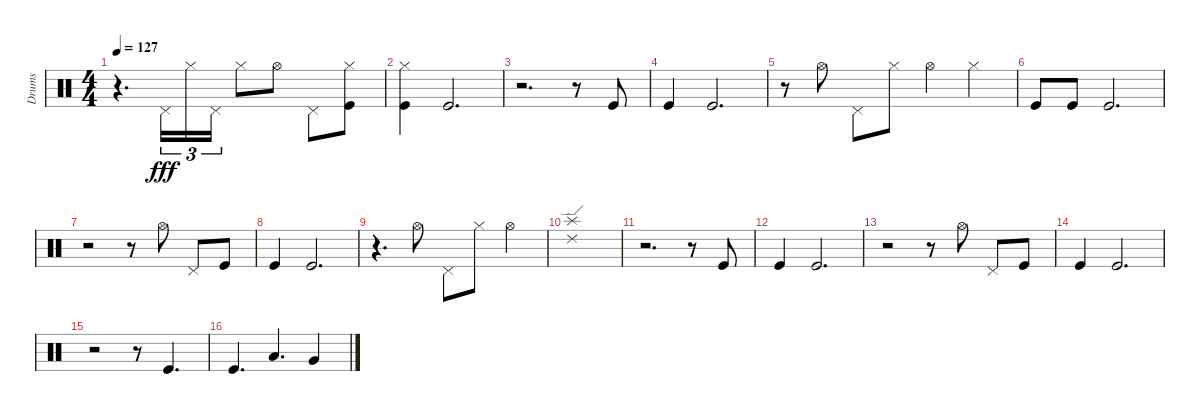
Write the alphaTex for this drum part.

\track ("Drums" "Drums") {instrument percussion}
\staff {score}
\articulation defaults
\ts (4 4)
\tempo 127
\clef neutral
\ks c
r.4{d dy fff} "Pedal Hi-Hat (hit)".16{tu (3 2)} "Hi-Hat (closed)".16{tu (3 2)} "Pedal Hi-Hat (hit)".16{tu (3 2)} "Hi-Hat (closed)".8 "Hi-Hat (open)".8 "Pedal Hi-Hat (hit)".8 ("Kick (hit)" "Hi-Hat (closed)").8 |
("Kick (hit)" "Hi-Hat (closed)").4 "Kick (hit)".2{d} |
r.2{d} r.8 "Kick (hit)".8 |
"Kick (hit)".4 "Kick (hit)".2{d} |
r.8 "Hi-Hat (open)".8 "Pedal Hi-Hat (hit)".8 "Hi-Hat (closed)".8 "Hi-Hat (open)".4 "Hi-Hat (closed)".4 |
"Kick (hit)".8 "Kick (hit)".8 "Kick (hit)".2{d} |
r.2 r.8 "Hi-Hat (open)".8 "Pedal Hi-Hat (hit)".8 "Kick (hit)".8 |
"Kick (hit)".4 "Kick (hit)".2{d} |
r.4{d} "Hi-Hat (open)".8 "Pedal Hi-Hat (hit)".8 "Hi-Hat (closed)".8 "Hi-Hat (open)".4 |
("Splash (hit)" "Ride (edge) 2").1 |
r.2{d} r.8 "Kick (hit)".8 |
"Kick (hit)".4 "Kick (hit)".2{d} |
r.2 r.8 "Hi-Hat (open)".8 "Pedal Hi-Hat (hit)".8 "Kick (hit)".8 |
"Kick (hit)".4 "Kick (hit)".2{d} |
r.2 r.8 "Kick (hit)".4{d} |
"Kick (hit)".4{d} "Low Tom (hit)".4{d} "Very Low Tom (hit)".4
